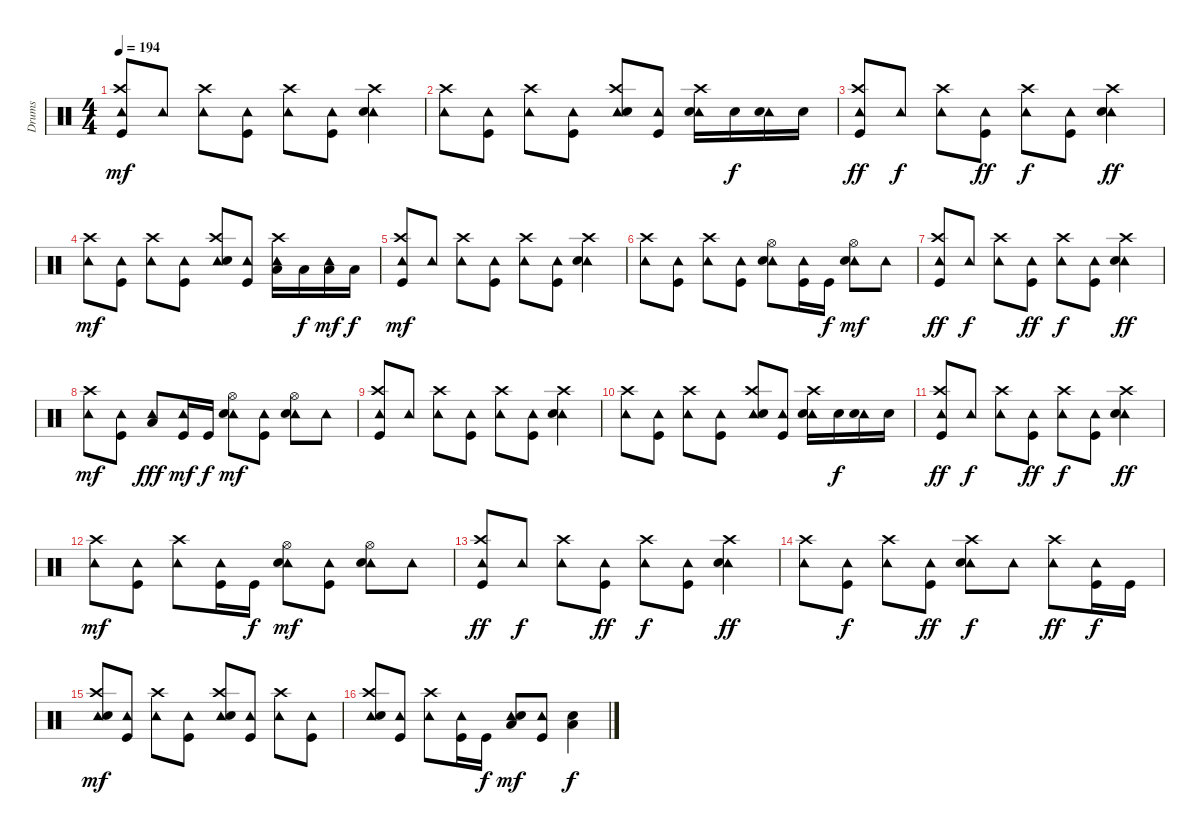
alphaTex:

\track ("Drums" "Drums") {instrument percussion}
\staff {score}
\articulation defaults
\ts (4 4)
\tempo 194
\clef neutral
\ks c
("Tambourine (hit)" "Crash high (hit)" "Kick (hit)").8{dy mf} "Tambourine (hit)".8 ("Tambourine (hit)" "Crash high (hit)").8 ("Tambourine (hit)" "Kick (hit)").8 ("Tambourine (hit)" "Crash high (hit)").8 ("Tambourine (hit)" "Kick (hit)").8 ("Tambourine (hit)" "Crash high (hit)" "Electric Snare (hit)").4 |
("Tambourine (hit)" "Crash high (hit)").8 ("Tambourine (hit)" "Kick (hit)").8 ("Tambourine (hit)" "Crash high (hit)").8 ("Tambourine (hit)" "Kick (hit)").8 ("Tambourine (hit)" "Crash high (hit)" "Electric Snare (hit)").8 ("Tambourine (hit)" "Kick (hit)").8 ("Tambourine (hit)" "Crash high (hit)" "Electric Snare (hit)").16 "Electric Snare (hit)".16{dy f} ("Tambourine (hit)" "Electric Snare (hit)").16 "Electric Snare (hit)".16 |
("Tambourine (hit)" "Crash high (hit)" "Kick (hit)").8{dy ff} "Tambourine (hit)".8{dy f} ("Tambourine (hit)" "Crash high (hit)").8 ("Tambourine (hit)" "Kick (hit)").8{dy ff} ("Tambourine (hit)" "Crash high (hit)").8{dy f} ("Tambourine (hit)" "Kick (hit)").8 ("Tambourine (hit)" "Crash high (hit)" "Electric Snare (hit)").4{dy ff} |
("Tambourine (hit)" "Crash high (hit)").8{dy mf} ("Tambourine (hit)" "Kick (hit)").8 ("Tambourine (hit)" "Crash high (hit)").8 ("Tambourine (hit)" "Kick (hit)").8 ("Tambourine (hit)" "Crash high (hit)" "Electric Snare (hit)").8 ("Tambourine (hit)" "Kick (hit)").8 ("Tambourine (hit)" "Crash high (hit)" "Low Tom (hit)").16 "Low Tom (hit)".16{dy f} ("Tambourine (hit)" "Low Tom (hit)").16{dy mf} "Low Tom (hit)".16{dy f} |
("Tambourine (hit)" "Crash high (hit)" "Kick (hit)").8{dy mf} "Tambourine (hit)".8 ("Tambourine (hit)" "Crash high (hit)").8 ("Tambourine (hit)" "Kick (hit)").8 ("Tambourine (hit)" "Crash high (hit)").8 ("Tambourine (hit)" "Kick (hit)").8 ("Tambourine (hit)" "Crash high (hit)" "Electric Snare (hit)").4 |
("Tambourine (hit)" "Crash high (hit)").8 ("Tambourine (hit)" "Kick (hit)").8 ("Tambourine (hit)" "Crash high (hit)").8 ("Tambourine (hit)" "Kick (hit)").8 ("Tambourine (hit)" "Hi-Hat (open)" "Electric Snare (hit)").8 ("Tambourine (hit)" "Kick (hit)").16 "Kick (hit)".16{dy f} ("Tambourine (hit)" "Hi-Hat (open)" "Electric Snare (hit)").8{dy mf} "Tambourine (hit)".8 |
("Tambourine (hit)" "Crash high (hit)" "Kick (hit)").8{dy ff} "Tambourine (hit)".8{dy f} ("Tambourine (hit)" "Crash high (hit)").8 ("Tambourine (hit)" "Kick (hit)").8{dy ff} ("Tambourine (hit)" "Crash high (hit)").8{dy f} ("Tambourine (hit)" "Kick (hit)").8 ("Tambourine (hit)" "Crash high (hit)" "Electric Snare (hit)").4{dy ff} |
("Tambourine (hit)" "Crash high (hit)").8{dy mf} ("Tambourine (hit)" "Kick (hit)").8 ("Tambourine (hit)" "Low Tom (hit)").8{dy fff} ("Tambourine (hit)" "Kick (hit)").16{dy mf} "Kick (hit)".16{dy f} ("Tambourine (hit)" "Hi-Hat (open)" "Electric Snare (hit)").8{dy mf} ("Tambourine (hit)" "Kick (hit)").8 ("Tambourine (hit)" "Hi-Hat (open)" "Electric Snare (hit)").8 "Tambourine (hit)".8 |
("Tambourine (hit)" "Crash high (hit)" "Kick (hit)").8 "Tambourine (hit)".8 ("Tambourine (hit)" "Crash high (hit)").8 ("Tambourine (hit)" "Kick (hit)").8 ("Tambourine (hit)" "Crash high (hit)").8 ("Tambourine (hit)" "Kick (hit)").8 ("Tambourine (hit)" "Crash high (hit)" "Electric Snare (hit)").4 |
("Tambourine (hit)" "Crash high (hit)").8 ("Tambourine (hit)" "Kick (hit)").8 ("Tambourine (hit)" "Crash high (hit)").8 ("Tambourine (hit)" "Kick (hit)").8 ("Tambourine (hit)" "Crash high (hit)" "Electric Snare (hit)").8 ("Tambourine (hit)" "Kick (hit)").8 ("Tambourine (hit)" "Crash high (hit)" "Electric Snare (hit)").16 "Electric Snare (hit)".16{dy f} ("Tambourine (hit)" "Electric Snare (hit)").16 "Electric Snare (hit)".16 |
("Tambourine (hit)" "Crash high (hit)" "Kick (hit)").8{dy ff} "Tambourine (hit)".8{dy f} ("Tambourine (hit)" "Crash high (hit)").8 ("Tambourine (hit)" "Kick (hit)").8{dy ff} ("Tambourine (hit)" "Crash high (hit)").8{dy f} ("Tambourine (hit)" "Kick (hit)").8 ("Tambourine (hit)" "Crash high (hit)" "Electric Snare (hit)").4{dy ff} |
("Tambourine (hit)" "Crash high (hit)").8{dy mf} ("Tambourine (hit)" "Kick (hit)").8 ("Tambourine (hit)" "Crash high (hit)").8 ("Tambourine (hit)" "Kick (hit)").16 "Kick (hit)".16{dy f} ("Tambourine (hit)" "Hi-Hat (open)" "Electric Snare (hit)").8{dy mf} ("Tambourine (hit)" "Kick (hit)").8 ("Tambourine (hit)" "Hi-Hat (open)" "Electric Snare (hit)").8 "Tambourine (hit)".8 |
("Tambourine (hit)" "Crash high (hit)" "Kick (hit)").8{dy ff} "Tambourine (hit)".8{dy f} ("Tambourine (hit)" "Crash high (hit)").8 ("Tambourine (hit)" "Kick (hit)").8{dy ff} ("Tambourine (hit)" "Crash high (hit)").8{dy f} ("Tambourine (hit)" "Kick (hit)").8 ("Tambourine (hit)" "Crash high (hit)" "Electric Snare (hit)").4{dy ff} |
("Tambourine (hit)" "Crash high (hit)").8 ("Tambourine (hit)" "Kick (hit)").8{dy f} ("Tambourine (hit)" "Crash high (hit)").8 ("Tambourine (hit)" "Kick (hit)").8{dy ff} ("Tambourine (hit)" "Crash high (hit)" "Electric Snare (hit)").8{dy f} "Tambourine (hit)".8 ("Tambourine (hit)" "Crash high (hit)").8{dy ff} ("Tambourine (hit)" "Kick (hit)").16{dy f} "Kick (hit)".16 |
("Tambourine (hit)" "Crash high (hit)" "Electric Snare (hit)").8{dy mf} ("Tambourine (hit)" "Kick (hit)").8 ("Tambourine (hit)" "Crash high (hit)").8 ("Tambourine (hit)" "Kick (hit)").8 ("Tambourine (hit)" "Crash high (hit)" "Electric Snare (hit)").8 ("Tambourine (hit)" "Kick (hit)").8 ("Tambourine (hit)" "Crash high (hit)").8 ("Tambourine (hit)" "Kick (hit)").8 |
("Tambourine (hit)" "Crash high (hit)" "Electric Snare (hit)").8 ("Tambourine (hit)" "Kick (hit)").8 ("Tambourine (hit)" "Crash high (hit)").8 ("Tambourine (hit)" "Kick (hit)").16 "Kick (hit)".16{dy f} ("Tambourine (hit)" "Low Tom (hit)" "Electric Snare (hit)").8{dy mf} ("Tambourine (hit)" "Kick (hit)").8 ("Low Tom (hit)" "Electric Snare (hit)").4{dy f}
